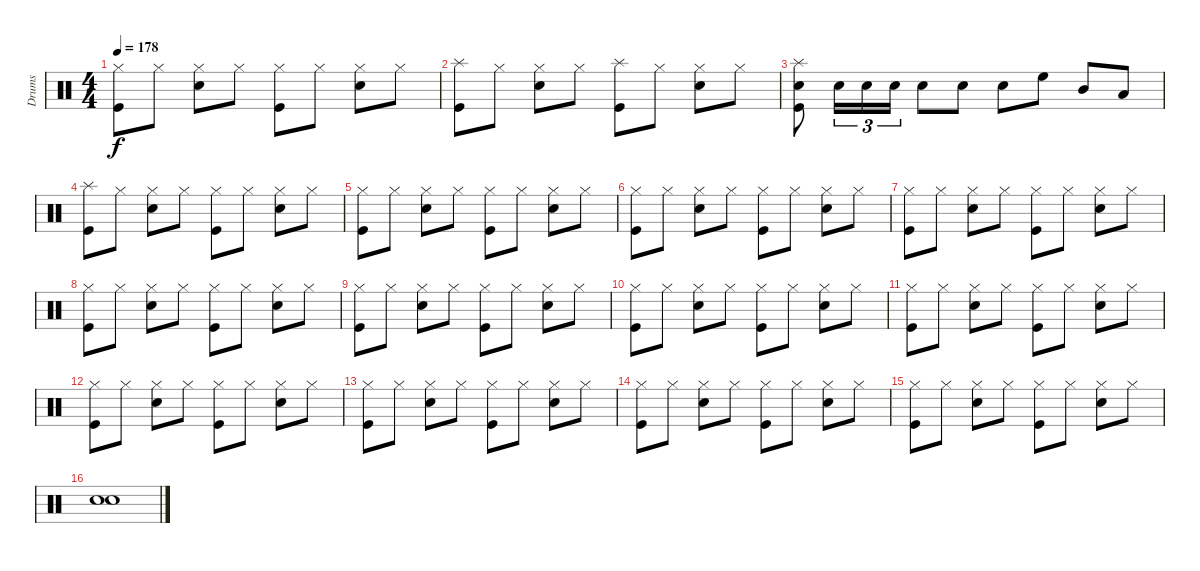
\track ("Drums" "Drums") {instrument percussion}
\staff {score}
\articulation defaults
\ts (4 4)
\tempo 178
\clef neutral
\ks c
("Hi-Hat (closed)" "Kick (hit)").8{dy f} "Hi-Hat (closed)".8 ("Hi-Hat (closed)" "Electric Snare (hit)").8 "Hi-Hat (closed)".8 ("Hi-Hat (closed)" "Kick (hit)").8 "Hi-Hat (closed)".8 ("Hi-Hat (closed)" "Electric Snare (hit)").8 "Hi-Hat (closed)".8 |
("Splash (hit)" "Kick (hit)").8 "Hi-Hat (closed)".8 ("Hi-Hat (closed)" "Electric Snare (hit)").8 "Hi-Hat (closed)".8 ("Splash (hit)" "Kick (hit)").8 "Hi-Hat (closed)".8 ("Hi-Hat (closed)" "Electric Snare (hit)").8 "Hi-Hat (closed)".8 |
("Splash (hit)" "Electric Snare (hit)" "Kick (hit)").8 "Electric Snare (hit)".16{tu (3 2)} "Electric Snare (hit)".16{tu (3 2)} "Electric Snare (hit)".16{tu (3 2)} "Electric Snare (hit)".8 "Electric Snare (hit)".8 "Electric Snare (hit)".8 "High Floor Tom (hit)".8 "Mid Tom (hit)".8 "Low Tom (hit)".8 |
("Splash (hit)" "Kick (hit)").8 "Hi-Hat (closed)".8 ("Hi-Hat (closed)" "Electric Snare (hit)").8 "Hi-Hat (closed)".8 ("Hi-Hat (closed)" "Kick (hit)").8 "Hi-Hat (closed)".8 ("Hi-Hat (closed)" "Electric Snare (hit)").8 "Hi-Hat (closed)".8 |
("Hi-Hat (closed)" "Kick (hit)").8 "Hi-Hat (closed)".8 ("Hi-Hat (closed)" "Electric Snare (hit)").8 "Hi-Hat (closed)".8 ("Hi-Hat (closed)" "Kick (hit)").8 "Hi-Hat (closed)".8 ("Hi-Hat (closed)" "Electric Snare (hit)").8 "Hi-Hat (closed)".8 |
("Hi-Hat (closed)" "Kick (hit)").8 "Hi-Hat (closed)".8 ("Hi-Hat (closed)" "Electric Snare (hit)").8 "Hi-Hat (closed)".8 ("Hi-Hat (closed)" "Kick (hit)").8 "Hi-Hat (closed)".8 ("Hi-Hat (closed)" "Electric Snare (hit)").8 "Hi-Hat (closed)".8 |
("Hi-Hat (closed)" "Kick (hit)").8 "Hi-Hat (closed)".8 ("Hi-Hat (closed)" "Electric Snare (hit)").8 "Hi-Hat (closed)".8 ("Hi-Hat (closed)" "Kick (hit)").8 "Hi-Hat (closed)".8 ("Hi-Hat (closed)" "Electric Snare (hit)").8 "Hi-Hat (closed)".8 |
("Hi-Hat (closed)" "Kick (hit)").8 "Hi-Hat (closed)".8 ("Hi-Hat (closed)" "Electric Snare (hit)").8 "Hi-Hat (closed)".8 ("Hi-Hat (closed)" "Kick (hit)").8 "Hi-Hat (closed)".8 ("Hi-Hat (closed)" "Electric Snare (hit)").8 "Hi-Hat (closed)".8 |
("Hi-Hat (closed)" "Kick (hit)").8 "Hi-Hat (closed)".8 ("Hi-Hat (closed)" "Electric Snare (hit)").8 "Hi-Hat (closed)".8 ("Hi-Hat (closed)" "Kick (hit)").8 "Hi-Hat (closed)".8 ("Hi-Hat (closed)" "Electric Snare (hit)").8 "Hi-Hat (closed)".8 |
("Hi-Hat (closed)" "Kick (hit)").8 "Hi-Hat (closed)".8 ("Hi-Hat (closed)" "Electric Snare (hit)").8 "Hi-Hat (closed)".8 ("Hi-Hat (closed)" "Kick (hit)").8 "Hi-Hat (closed)".8 ("Hi-Hat (closed)" "Electric Snare (hit)").8 "Hi-Hat (closed)".8 |
("Hi-Hat (closed)" "Kick (hit)").8 "Hi-Hat (closed)".8 ("Hi-Hat (closed)" "Electric Snare (hit)").8 "Hi-Hat (closed)".8 ("Hi-Hat (closed)" "Kick (hit)").8 "Hi-Hat (closed)".8 ("Hi-Hat (closed)" "Electric Snare (hit)").8 "Hi-Hat (closed)".8 |
("Hi-Hat (closed)" "Kick (hit)").8 "Hi-Hat (closed)".8 ("Hi-Hat (closed)" "Electric Snare (hit)").8 "Hi-Hat (closed)".8 ("Hi-Hat (closed)" "Kick (hit)").8 "Hi-Hat (closed)".8 ("Hi-Hat (closed)" "Electric Snare (hit)").8 "Hi-Hat (closed)".8 |
("Hi-Hat (closed)" "Kick (hit)").8 "Hi-Hat (closed)".8 ("Hi-Hat (closed)" "Electric Snare (hit)").8 "Hi-Hat (closed)".8 ("Hi-Hat (closed)" "Kick (hit)").8 "Hi-Hat (closed)".8 ("Hi-Hat (closed)" "Electric Snare (hit)").8 "Hi-Hat (closed)".8 |
("Hi-Hat (closed)" "Kick (hit)").8 "Hi-Hat (closed)".8 ("Hi-Hat (closed)" "Electric Snare (hit)").8 "Hi-Hat (closed)".8 ("Hi-Hat (closed)" "Kick (hit)").8 "Hi-Hat (closed)".8 ("Hi-Hat (closed)" "Electric Snare (hit)").8 "Hi-Hat (closed)".8 |
("Hi-Hat (closed)" "Kick (hit)").8 "Hi-Hat (closed)".8 ("Hi-Hat (closed)" "Electric Snare (hit)").8 "Hi-Hat (closed)".8 ("Hi-Hat (closed)" "Kick (hit)").8 "Hi-Hat (closed)".8 ("Hi-Hat (closed)" "Electric Snare (hit)").8 "Hi-Hat (closed)".8 |
("Electric Snare (hit)" "Electric Snare (hit)").1
